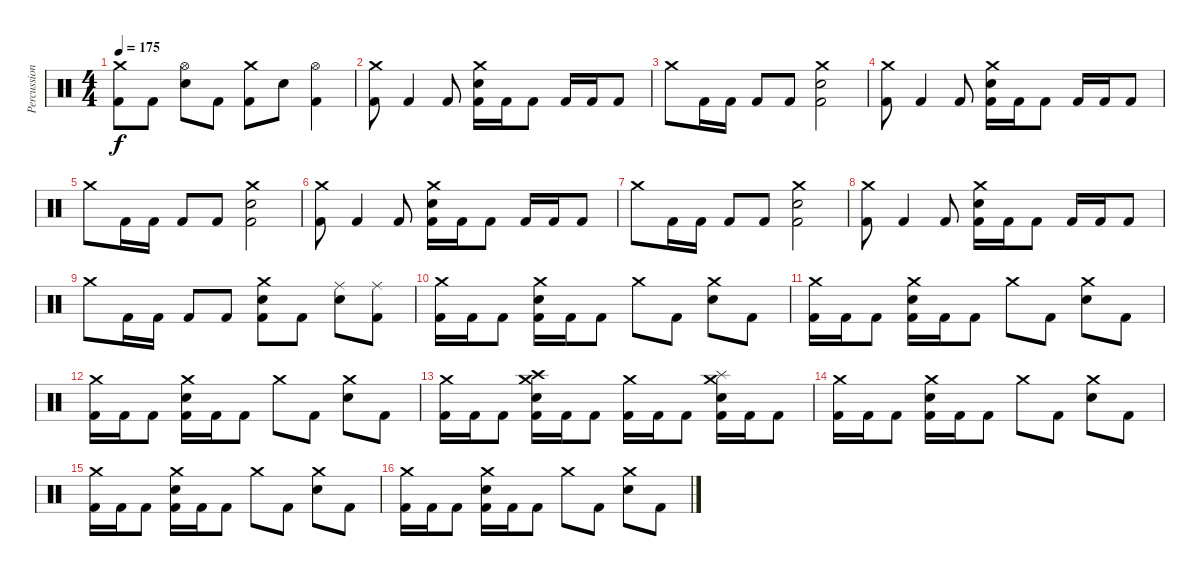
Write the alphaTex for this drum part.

\track ("Percussion" "Percussion") {instrument percussion}
\staff {score}
\articulation defaults
\ts (4 4)
\tempo 175
\clef neutral
\ks c
("Crash medium (hit)" "Kick (hit) 2").8{dy f} "Kick (hit) 2".8 ("Hi-Hat (open)" "Electric Snare (hit)").8 "Kick (hit) 2".8 ("Crash medium (hit)" "Kick (hit) 2").8 "Electric Snare (hit)".8 ("Hi-Hat (open)" "Kick (hit) 2").4 |
("Crash medium (hit)" "Kick (hit) 2").8 "Kick (hit) 2".4 "Kick (hit) 2".8 ("Crash medium (hit)" "Electric Snare (hit)" "Kick (hit) 2").16 "Kick (hit) 2".16 "Kick (hit) 2".8 "Kick (hit) 2".16 "Kick (hit) 2".16 "Kick (hit) 2".8 |
"Crash medium (hit)".8 "Kick (hit) 2".16 "Kick (hit) 2".16 "Kick (hit) 2".8 "Kick (hit) 2".8 ("Crash medium (hit)" "Electric Snare (hit)" "Kick (hit) 2").2 |
("Crash medium (hit)" "Kick (hit) 2").8 "Kick (hit) 2".4 "Kick (hit) 2".8 ("Crash medium (hit)" "Electric Snare (hit)" "Kick (hit) 2").16 "Kick (hit) 2".16 "Kick (hit) 2".8 "Kick (hit) 2".16 "Kick (hit) 2".16 "Kick (hit) 2".8 |
"Crash medium (hit)".8 "Kick (hit) 2".16 "Kick (hit) 2".16 "Kick (hit) 2".8 "Kick (hit) 2".8 ("Crash medium (hit)" "Electric Snare (hit)" "Kick (hit) 2").2 |
("Crash medium (hit)" "Kick (hit) 2").8 "Kick (hit) 2".4 "Kick (hit) 2".8 ("Crash medium (hit)" "Electric Snare (hit)" "Kick (hit) 2").16 "Kick (hit) 2".16 "Kick (hit) 2".8 "Kick (hit) 2".16 "Kick (hit) 2".16 "Kick (hit) 2".8 |
"Crash medium (hit)".8 "Kick (hit) 2".16 "Kick (hit) 2".16 "Kick (hit) 2".8 "Kick (hit) 2".8 ("Crash medium (hit)" "Electric Snare (hit)" "Kick (hit) 2").2 |
("Crash medium (hit)" "Kick (hit) 2").8 "Kick (hit) 2".4 "Kick (hit) 2".8 ("Crash medium (hit)" "Electric Snare (hit)" "Kick (hit) 2").16 "Kick (hit) 2".16 "Kick (hit) 2".8 "Kick (hit) 2".16 "Kick (hit) 2".16 "Kick (hit) 2".8 |
"Crash medium (hit)".8 "Kick (hit) 2".16 "Kick (hit) 2".16 "Kick (hit) 2".8 "Kick (hit) 2".8 ("Crash medium (hit)" "Electric Snare (hit)" "Kick (hit) 2").8 "Kick (hit) 2".8 ("Ride (middle)" "Electric Snare (hit)").8 ("Ride (middle)" "Kick (hit) 2").8 |
("Crash medium (hit)" "Kick (hit) 2").16 "Kick (hit) 2".16 "Kick (hit) 2".8 ("Crash medium (hit)" "Electric Snare (hit)" "Kick (hit) 2").16 "Kick (hit) 2".16 "Kick (hit) 2".8 "Crash medium (hit)".8 "Kick (hit) 2".8 ("Crash medium (hit)" "Electric Snare (hit)").8 "Kick (hit) 2".8 |
("Crash medium (hit)" "Kick (hit) 2").16 "Kick (hit) 2".16 "Kick (hit) 2".8 ("Crash medium (hit)" "Electric Snare (hit)" "Kick (hit) 2").16 "Kick (hit) 2".16 "Kick (hit) 2".8 "Crash medium (hit)".8 "Kick (hit) 2".8 ("Crash medium (hit)" "Electric Snare (hit)").8 "Kick (hit) 2".8 |
("Crash medium (hit)" "Kick (hit) 2").16 "Kick (hit) 2".16 "Kick (hit) 2".8 ("Crash medium (hit)" "Electric Snare (hit)" "Kick (hit) 2").16 "Kick (hit) 2".16 "Kick (hit) 2".8 "Crash medium (hit)".8 "Kick (hit) 2".8 ("Crash medium (hit)" "Electric Snare (hit)").8 "Kick (hit) 2".8 |
("Crash medium (hit)" "Kick (hit) 2").16 "Kick (hit) 2".16 "Kick (hit) 2".8 ("Crash high (hit)" "Crash medium (hit)" "Electric Snare (hit)" "Kick (hit) 2").16 "Kick (hit) 2".16 "Kick (hit) 2".8 ("Crash medium (hit)" "Kick (hit) 2").16 "Kick (hit) 2".16 "Kick (hit) 2".8 ("Splash (hit)" "Crash medium (hit)" "Electric Snare (hit)" "Kick (hit) 2").16 "Kick (hit) 2".16 "Kick (hit) 2".8 |
("Crash medium (hit)" "Kick (hit) 2").16 "Kick (hit) 2".16 "Kick (hit) 2".8 ("Crash medium (hit)" "Electric Snare (hit)" "Kick (hit) 2").16 "Kick (hit) 2".16 "Kick (hit) 2".8 "Crash medium (hit)".8 "Kick (hit) 2".8 ("Crash medium (hit)" "Electric Snare (hit)").8 "Kick (hit) 2".8 |
("Crash medium (hit)" "Kick (hit) 2").16 "Kick (hit) 2".16 "Kick (hit) 2".8 ("Crash medium (hit)" "Electric Snare (hit)" "Kick (hit) 2").16 "Kick (hit) 2".16 "Kick (hit) 2".8 "Crash medium (hit)".8 "Kick (hit) 2".8 ("Crash medium (hit)" "Electric Snare (hit)").8 "Kick (hit) 2".8 |
("Crash medium (hit)" "Kick (hit) 2").16 "Kick (hit) 2".16 "Kick (hit) 2".8 ("Crash medium (hit)" "Electric Snare (hit)" "Kick (hit) 2").16 "Kick (hit) 2".16 "Kick (hit) 2".8 "Crash medium (hit)".8 "Kick (hit) 2".8 ("Crash medium (hit)" "Electric Snare (hit)").8 "Kick (hit) 2".8
